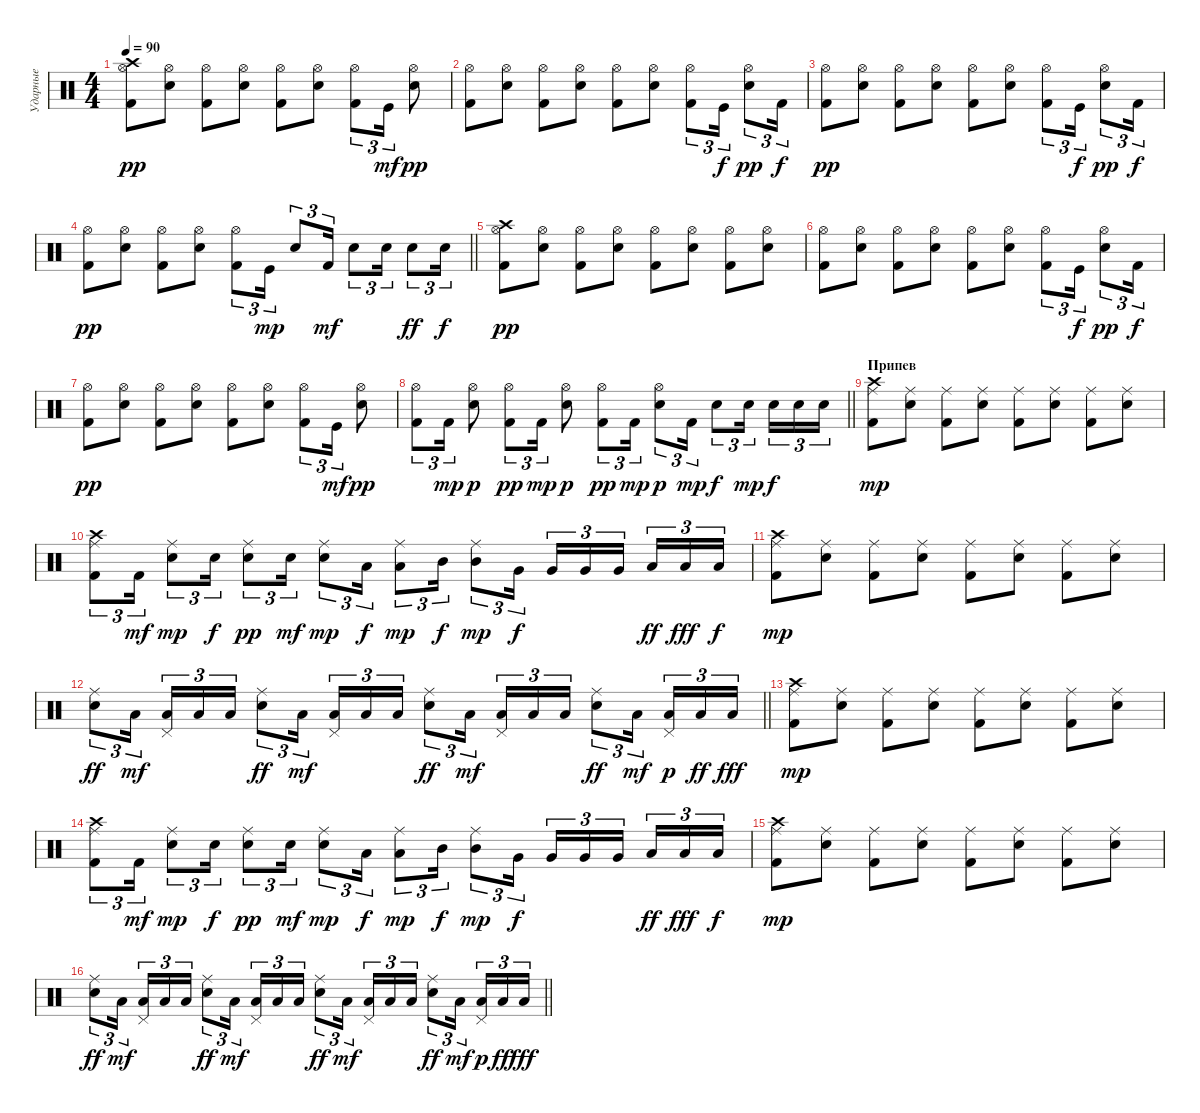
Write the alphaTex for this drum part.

\track ("Ударные" "Ударные") {instrument percussion}
\staff {score}
\articulation defaults
\ts (4 4)
\tempo 90
\clef neutral
\ks c
("Crash high (hit)" "Hi-Hat (open)" "Kick (hit) 2").8{dy pp} ("Hi-Hat (open)" "Snare (hit) 2").8 ("Hi-Hat (open)" "Kick (hit) 2").8 ("Hi-Hat (open)" "Snare (hit) 2").8 ("Hi-Hat (open)" "Kick (hit) 2").8 ("Hi-Hat (open)" "Snare (hit) 2").8 ("Hi-Hat (open)" "Kick (hit) 2").8{tu (3 2)} "Kick (hit)".16{tu (3 2) dy mf} ("Hi-Hat (open)" "Snare (hit) 2").8{dy pp} |
("Hi-Hat (open)" "Kick (hit) 2").8 ("Hi-Hat (open)" "Snare (hit) 2").8 ("Hi-Hat (open)" "Kick (hit) 2").8 ("Hi-Hat (open)" "Snare (hit) 2").8 ("Hi-Hat (open)" "Kick (hit) 2").8 ("Hi-Hat (open)" "Snare (hit) 2").8 ("Hi-Hat (open)" "Kick (hit) 2").8{tu (3 2)} "Kick (hit)".16{tu (3 2) dy f} ("Hi-Hat (open)" "Snare (hit) 2").8{tu (3 2) dy pp} "Kick (hit) 2".16{tu (3 2) dy f} |
("Hi-Hat (open)" "Kick (hit) 2").8{dy pp} ("Hi-Hat (open)" "Snare (hit) 2").8 ("Hi-Hat (open)" "Kick (hit) 2").8 ("Hi-Hat (open)" "Snare (hit) 2").8 ("Hi-Hat (open)" "Kick (hit) 2").8 ("Hi-Hat (open)" "Snare (hit) 2").8 ("Hi-Hat (open)" "Kick (hit) 2").8{tu (3 2)} "Kick (hit)".16{tu (3 2) dy f} ("Hi-Hat (open)" "Snare (hit) 2").8{tu (3 2) dy pp} "Kick (hit) 2".16{tu (3 2) dy f} |
\barLineRight lightlight
("Hi-Hat (open)" "Kick (hit) 2").8{dy pp} ("Hi-Hat (open)" "Snare (hit) 2").8 ("Hi-Hat (open)" "Kick (hit) 2").8 ("Hi-Hat (open)" "Snare (hit) 2").8 ("Hi-Hat (open)" "Kick (hit) 2").8{tu (3 2)} "Kick (hit)".16{tu (3 2) dy mp} "Snare (hit) 2".8{tu (3 2)} "Kick (hit) 2".16{tu (3 2) dy mf} "Electric Snare (hit)".8{tu (3 2)} "Snare (hit) 2".16{tu (3 2)} "Electric Snare (hit)".8{tu (3 2) dy ff} "Snare (hit) 2".16{tu (3 2) dy f} |
("Crash high (hit)" "Hi-Hat (open)" "Kick (hit) 2").8{dy pp} ("Hi-Hat (open)" "Snare (hit) 2").8 ("Hi-Hat (open)" "Kick (hit) 2").8 ("Hi-Hat (open)" "Snare (hit) 2").8 ("Hi-Hat (open)" "Kick (hit) 2").8 ("Hi-Hat (open)" "Snare (hit) 2").8 ("Hi-Hat (open)" "Kick (hit) 2").8 ("Hi-Hat (open)" "Snare (hit) 2").8 |
("Hi-Hat (open)" "Kick (hit) 2").8 ("Hi-Hat (open)" "Snare (hit) 2").8 ("Hi-Hat (open)" "Kick (hit) 2").8 ("Hi-Hat (open)" "Snare (hit) 2").8 ("Hi-Hat (open)" "Kick (hit) 2").8 ("Hi-Hat (open)" "Snare (hit) 2").8 ("Hi-Hat (open)" "Kick (hit) 2").8{tu (3 2)} "Kick (hit)".16{tu (3 2) dy f} ("Hi-Hat (open)" "Snare (hit) 2").8{tu (3 2) dy pp} "Kick (hit) 2".16{tu (3 2) dy f} |
("Hi-Hat (open)" "Kick (hit) 2").8{dy pp} ("Hi-Hat (open)" "Snare (hit) 2").8 ("Hi-Hat (open)" "Kick (hit) 2").8 ("Hi-Hat (open)" "Snare (hit) 2").8 ("Hi-Hat (open)" "Kick (hit) 2").8 ("Hi-Hat (open)" "Snare (hit) 2").8 ("Hi-Hat (open)" "Kick (hit) 2").8{tu (3 2)} "Kick (hit)".16{tu (3 2) dy mf} ("Hi-Hat (open)" "Snare (hit) 2").8{dy pp} |
\barLineRight lightlight
("Hi-Hat (open)" "Kick (hit) 2").8{tu (3 2)} "Kick (hit) 2".16{tu (3 2) dy mp} ("Hi-Hat (open)" "Snare (hit) 2").8{dy p} ("Hi-Hat (open)" "Kick (hit) 2").8{tu (3 2) dy pp} "Kick (hit) 2".16{tu (3 2) dy mp} ("Hi-Hat (open)" "Snare (hit) 2").8{dy p} ("Hi-Hat (open)" "Kick (hit) 2").8{tu (3 2) dy pp} "Kick (hit) 2".16{tu (3 2) dy mp} ("Hi-Hat (open)" "Snare (hit) 2").8{tu (3 2) dy p} "Kick (hit) 2".16{tu (3 2) dy mp} "Snare (hit) 2".8{tu (3 2) dy f} "Snare (hit) 2".16{tu (3 2) dy mp beam splitsecondary} "Snare (hit) 2".16{tu (3 2) dy f} "Snare (hit) 2".16{tu (3 2)} "Snare (hit) 2".16{tu (3 2)} |
\section ("" "Припев")
("Crash high (hit)" "Ride (middle)" "Kick (hit) 2").8{dy mp} ("Ride (middle)" "Snare (hit) 2").8 ("Ride (middle)" "Kick (hit) 2").8 ("Ride (middle)" "Snare (hit) 2").8 ("Ride (middle)" "Kick (hit) 2").8 ("Ride (middle)" "Snare (hit) 2").8 ("Ride (middle)" "Kick (hit) 2").8 ("Ride (middle)" "Snare (hit) 2").8 |
("Crash high (hit)" "Ride (middle)" "Kick (hit) 2").8{tu (3 2)} "Kick (hit) 2".16{tu (3 2) dy mf} ("Ride (middle)" "Snare (hit) 2").8{tu (3 2) dy mp} "Snare (hit) 2".16{tu (3 2) dy f} ("Ride (middle)" "Snare (hit) 2").8{tu (3 2) dy pp} "Electric Snare (hit)".16{tu (3 2) dy mf} ("Ride (middle)" "Electric Snare (hit)").8{tu (3 2) dy mp} "Low Tom (hit)".16{tu (3 2) dy f} ("Ride (middle)" "Low Tom (hit)").8{tu (3 2) dy mp} "Mid Tom (hit)".16{tu (3 2) dy f} ("Ride (middle)" "Mid Tom (hit)").8{tu (3 2) dy mp} "Very Low Tom (hit)".16{tu (3 2) dy f} "Very Low Tom (hit)".16{tu (3 2)} "Very Low Tom (hit)".16{tu (3 2)} "Very Low Tom (hit)".16{tu (3 2) beam splitsecondary} "Low Tom (hit)".16{tu (3 2) dy ff} "Low Tom (hit)".16{tu (3 2) dy fff} "Low Tom (hit)".16{tu (3 2) dy f} |
("Crash high (hit)" "Ride (middle)" "Kick (hit) 2").8{dy mp} ("Ride (middle)" "Snare (hit) 2").8 ("Ride (middle)" "Kick (hit) 2").8 ("Ride (middle)" "Snare (hit) 2").8 ("Ride (middle)" "Kick (hit) 2").8 ("Ride (middle)" "Snare (hit) 2").8 ("Ride (middle)" "Kick (hit) 2").8 ("Ride (middle)" "Snare (hit) 2").8 |
\barLineRight lightlight
("Ride (middle)" "Snare (hit) 2").8{tu (3 2) dy ff} "Low Tom (hit)".16{tu (3 2) dy mf beam splitsecondary} ("Pedal Hi-Hat (hit)" "Low Tom (hit)").16{tu (3 2)} "Low Tom (hit)".16{tu (3 2)} "Low Tom (hit)".16{tu (3 2)} ("Ride (middle)" "Snare (hit) 2").8{tu (3 2) dy ff} "Low Tom (hit)".16{tu (3 2) dy mf beam splitsecondary} ("Pedal Hi-Hat (hit)" "Low Tom (hit)").16{tu (3 2)} "Low Tom (hit)".16{tu (3 2)} "Low Tom (hit)".16{tu (3 2)} ("Ride (middle)" "Snare (hit) 2").8{tu (3 2) dy ff} "Low Tom (hit)".16{tu (3 2) dy mf beam splitsecondary} ("Pedal Hi-Hat (hit)" "Low Tom (hit)").16{tu (3 2)} "Low Tom (hit)".16{tu (3 2)} "Low Tom (hit)".16{tu (3 2)} ("Ride (middle)" "Snare (hit) 2").8{tu (3 2) dy ff} "Low Tom (hit)".16{tu (3 2) dy mf beam splitsecondary} ("Pedal Hi-Hat (hit)" "Low Tom (hit)").16{tu (3 2) dy p} "Low Tom (hit)".16{tu (3 2) dy ff} "Low Tom (hit)".16{tu (3 2) dy fff} |
("Crash high (hit)" "Ride (middle)" "Kick (hit) 2").8{dy mp} ("Ride (middle)" "Snare (hit) 2").8 ("Ride (middle)" "Kick (hit) 2").8 ("Ride (middle)" "Snare (hit) 2").8 ("Ride (middle)" "Kick (hit) 2").8 ("Ride (middle)" "Snare (hit) 2").8 ("Ride (middle)" "Kick (hit) 2").8 ("Ride (middle)" "Snare (hit) 2").8 |
("Crash high (hit)" "Ride (middle)" "Kick (hit) 2").8{tu (3 2)} "Kick (hit) 2".16{tu (3 2) dy mf} ("Ride (middle)" "Snare (hit) 2").8{tu (3 2) dy mp} "Snare (hit) 2".16{tu (3 2) dy f} ("Ride (middle)" "Snare (hit) 2").8{tu (3 2) dy pp} "Electric Snare (hit)".16{tu (3 2) dy mf} ("Ride (middle)" "Electric Snare (hit)").8{tu (3 2) dy mp} "Low Tom (hit)".16{tu (3 2) dy f} ("Ride (middle)" "Low Tom (hit)").8{tu (3 2) dy mp} "Mid Tom (hit)".16{tu (3 2) dy f} ("Ride (middle)" "Mid Tom (hit)").8{tu (3 2) dy mp} "Very Low Tom (hit)".16{tu (3 2) dy f} "Very Low Tom (hit)".16{tu (3 2)} "Very Low Tom (hit)".16{tu (3 2)} "Very Low Tom (hit)".16{tu (3 2) beam splitsecondary} "Low Tom (hit)".16{tu (3 2) dy ff} "Low Tom (hit)".16{tu (3 2) dy fff} "Low Tom (hit)".16{tu (3 2) dy f} |
("Crash high (hit)" "Ride (middle)" "Kick (hit) 2").8{dy mp} ("Ride (middle)" "Snare (hit) 2").8 ("Ride (middle)" "Kick (hit) 2").8 ("Ride (middle)" "Snare (hit) 2").8 ("Ride (middle)" "Kick (hit) 2").8 ("Ride (middle)" "Snare (hit) 2").8 ("Ride (middle)" "Kick (hit) 2").8 ("Ride (middle)" "Snare (hit) 2").8 |
\barLineRight lightlight
("Ride (middle)" "Snare (hit) 2").8{tu (3 2) dy ff} "Low Tom (hit)".16{tu (3 2) dy mf beam splitsecondary} ("Pedal Hi-Hat (hit)" "Low Tom (hit)").16{tu (3 2)} "Low Tom (hit)".16{tu (3 2)} "Low Tom (hit)".16{tu (3 2)} ("Ride (middle)" "Snare (hit) 2").8{tu (3 2) dy ff} "Low Tom (hit)".16{tu (3 2) dy mf beam splitsecondary} ("Pedal Hi-Hat (hit)" "Low Tom (hit)").16{tu (3 2)} "Low Tom (hit)".16{tu (3 2)} "Low Tom (hit)".16{tu (3 2)} ("Ride (middle)" "Snare (hit) 2").8{tu (3 2) dy ff} "Low Tom (hit)".16{tu (3 2) dy mf beam splitsecondary} ("Pedal Hi-Hat (hit)" "Low Tom (hit)").16{tu (3 2)} "Low Tom (hit)".16{tu (3 2)} "Low Tom (hit)".16{tu (3 2)} ("Ride (middle)" "Snare (hit) 2").8{tu (3 2) dy ff} "Low Tom (hit)".16{tu (3 2) dy mf beam splitsecondary} ("Pedal Hi-Hat (hit)" "Low Tom (hit)").16{tu (3 2) dy p} "Low Tom (hit)".16{tu (3 2) dy ff} "Low Tom (hit)".16{tu (3 2) dy fff}
